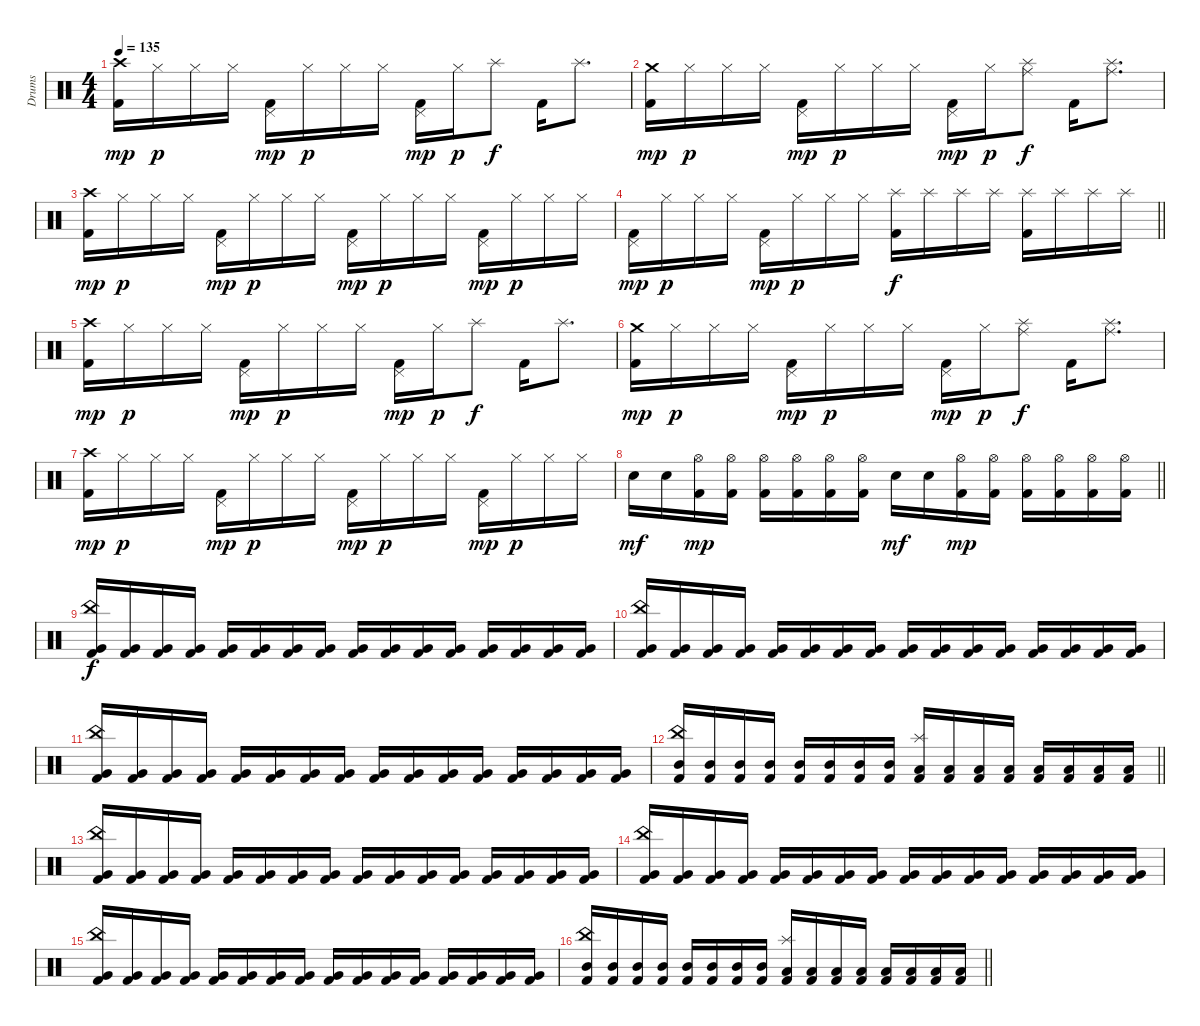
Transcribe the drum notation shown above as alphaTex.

\track ("Drums" "Drums") {instrument percussion}
\staff {score}
\articulation defaults
\ts (4 4)
\tempo 135
\clef neutral
\ks c
("Crash high (hit)" "Kick (hit) 2").16{dy mp} "Hi-Hat (closed)".16{dy p} "Hi-Hat (closed)".16 "Hi-Hat (closed)".16 ("Pedal Hi-Hat (hit)" "Kick (hit) 2").16{dy mp} "Hi-Hat (closed)".16{dy p} "Hi-Hat (closed)".16 "Hi-Hat (closed)".16 ("Pedal Hi-Hat (hit)" "Kick (hit) 2").16{dy mp} "Hi-Hat (closed)".16{dy p} "Splash (hit)".8{dy f} "Kick (hit) 2".16 "Splash (hit)".8{d} |
("Crash medium (hit)" "Kick (hit) 2").16{dy mp} "Hi-Hat (closed)".16{dy p} "Hi-Hat (closed)".16 "Hi-Hat (closed)".16 ("Pedal Hi-Hat (hit)" "Kick (hit) 2").16{dy mp} "Hi-Hat (closed)".16{dy p} "Hi-Hat (closed)".16 "Hi-Hat (closed)".16 ("Pedal Hi-Hat (hit)" "Kick (hit) 2").16{dy mp} "Hi-Hat (closed)".16{dy p} ("Splash (hit)" "Ride (middle)").8{dy f} "Kick (hit) 2".16 ("Splash (hit)" "Ride (middle)").8{d} |
("Crash high (hit)" "Kick (hit) 2").16{dy mp} "Hi-Hat (closed)".16{dy p} "Hi-Hat (closed)".16 "Hi-Hat (closed)".16 ("Pedal Hi-Hat (hit)" "Kick (hit) 2").16{dy mp} "Hi-Hat (closed)".16{dy p} "Hi-Hat (closed)".16 "Hi-Hat (closed)".16 ("Pedal Hi-Hat (hit)" "Kick (hit) 2").16{dy mp} "Hi-Hat (closed)".16{dy p} "Hi-Hat (closed)".16 "Hi-Hat (closed)".16 ("Pedal Hi-Hat (hit)" "Kick (hit) 2").16{dy mp} "Hi-Hat (closed)".16{dy p} "Hi-Hat (closed)".16 "Hi-Hat (closed)".16 |
\barLineRight lightlight
("Pedal Hi-Hat (hit)" "Kick (hit) 2").16{dy mp} "Hi-Hat (closed)".16{dy p} "Hi-Hat (closed)".16 "Hi-Hat (closed)".16 ("Pedal Hi-Hat (hit)" "Kick (hit) 2").16{dy mp} "Hi-Hat (closed)".16{dy p} "Hi-Hat (closed)".16 "Hi-Hat (closed)".16 ("Splash (hit)" "Kick (hit) 2").16{dy f} "Splash (hit)".16 "Splash (hit)".16 "Splash (hit)".16 ("Splash (hit)" "Kick (hit) 2").16 "Splash (hit)".16 "Splash (hit)".16 "Splash (hit)".16 |
("Crash high (hit)" "Kick (hit) 2").16{dy mp} "Hi-Hat (closed)".16{dy p} "Hi-Hat (closed)".16 "Hi-Hat (closed)".16 ("Pedal Hi-Hat (hit)" "Kick (hit) 2").16{dy mp} "Hi-Hat (closed)".16{dy p} "Hi-Hat (closed)".16 "Hi-Hat (closed)".16 ("Pedal Hi-Hat (hit)" "Kick (hit) 2").16{dy mp} "Hi-Hat (closed)".16{dy p} "Splash (hit)".8{dy f} "Kick (hit) 2".16 "Splash (hit)".8{d} |
("Crash medium (hit)" "Kick (hit) 2").16{dy mp} "Hi-Hat (closed)".16{dy p} "Hi-Hat (closed)".16 "Hi-Hat (closed)".16 ("Pedal Hi-Hat (hit)" "Kick (hit) 2").16{dy mp} "Hi-Hat (closed)".16{dy p} "Hi-Hat (closed)".16 "Hi-Hat (closed)".16 ("Pedal Hi-Hat (hit)" "Kick (hit) 2").16{dy mp} "Hi-Hat (closed)".16{dy p} ("Splash (hit)" "Ride (middle)").8{dy f} "Kick (hit) 2".16 ("Splash (hit)" "Ride (middle)").8{d} |
("Crash high (hit)" "Kick (hit) 2").16{dy mp} "Hi-Hat (closed)".16{dy p} "Hi-Hat (closed)".16 "Hi-Hat (closed)".16 ("Pedal Hi-Hat (hit)" "Kick (hit) 2").16{dy mp} "Hi-Hat (closed)".16{dy p} "Hi-Hat (closed)".16 "Hi-Hat (closed)".16 ("Pedal Hi-Hat (hit)" "Kick (hit) 2").16{dy mp} "Hi-Hat (closed)".16{dy p} "Hi-Hat (closed)".16 "Hi-Hat (closed)".16 ("Pedal Hi-Hat (hit)" "Kick (hit) 2").16{dy mp} "Hi-Hat (closed)".16{dy p} "Hi-Hat (closed)".16 "Hi-Hat (closed)".16 |
\barLineRight lightlight "Electric Snare (hit)".16{dy mf} "Electric Snare (hit)".16
("Hi-Hat (open)" "Kick (hit) 2").16{dy mp} ("Hi-Hat (open)" "Kick (hit) 2").16 ("Hi-Hat (open)" "Kick (hit) 2").16 ("Hi-Hat (open)" "Kick (hit) 2").16 ("Hi-Hat (open)" "Kick (hit) 2").16 ("Hi-Hat (open)" "Kick (hit) 2").16 "Electric Snare (hit)".16{dy mf} "Electric Snare (hit)".16 ("Hi-Hat (open)" "Kick (hit) 2").16{dy mp} ("Hi-Hat (open)" "Kick (hit) 2").16 ("Hi-Hat (open)" "Kick (hit) 2").16 ("Hi-Hat (open)" "Kick (hit) 2").16 ("Hi-Hat (open)" "Kick (hit) 2").16 ("Hi-Hat (open)" "Kick (hit) 2").16 |
("China (hit)" "Very Low Tom (hit)" "Kick (hit) 2").16{dy f} ("Very Low Tom (hit)" "Kick (hit) 2").16 ("Very Low Tom (hit)" "Kick (hit) 2").16 ("Very Low Tom (hit)" "Kick (hit) 2").16 ("Very Low Tom (hit)" "Kick (hit) 2").16 ("Very Low Tom (hit)" "Kick (hit) 2").16 ("Very Low Tom (hit)" "Kick (hit) 2").16 ("Very Low Tom (hit)" "Kick (hit) 2").16 ("Very Low Tom (hit)" "Kick (hit) 2").16 ("Very Low Tom (hit)" "Kick (hit) 2").16 ("Very Low Tom (hit)" "Kick (hit) 2").16 ("Very Low Tom (hit)" "Kick (hit) 2").16 ("Very Low Tom (hit)" "Kick (hit) 2").16 ("Very Low Tom (hit)" "Kick (hit) 2").16 ("Very Low Tom (hit)" "Kick (hit) 2").16 ("Very Low Tom (hit)" "Kick (hit) 2").16 |
("China (hit)" "Very Low Tom (hit)" "Kick (hit) 2").16 ("Very Low Tom (hit)" "Kick (hit) 2").16 ("Very Low Tom (hit)" "Kick (hit) 2").16 ("Very Low Tom (hit)" "Kick (hit) 2").16 ("Very Low Tom (hit)" "Kick (hit) 2").16 ("Very Low Tom (hit)" "Kick (hit) 2").16 ("Very Low Tom (hit)" "Kick (hit) 2").16 ("Very Low Tom (hit)" "Kick (hit) 2").16 ("Very Low Tom (hit)" "Kick (hit) 2").16 ("Very Low Tom (hit)" "Kick (hit) 2").16 ("Very Low Tom (hit)" "Kick (hit) 2").16 ("Very Low Tom (hit)" "Kick (hit) 2").16 ("Very Low Tom (hit)" "Kick (hit) 2").16 ("Very Low Tom (hit)" "Kick (hit) 2").16 ("Very Low Tom (hit)" "Kick (hit) 2").16 ("Very Low Tom (hit)" "Kick (hit) 2").16 |
("China (hit)" "Very Low Tom (hit)" "Kick (hit) 2").16 ("Very Low Tom (hit)" "Kick (hit) 2").16 ("Very Low Tom (hit)" "Kick (hit) 2").16 ("Very Low Tom (hit)" "Kick (hit) 2").16 ("Very Low Tom (hit)" "Kick (hit) 2").16 ("Very Low Tom (hit)" "Kick (hit) 2").16 ("Very Low Tom (hit)" "Kick (hit) 2").16 ("Very Low Tom (hit)" "Kick (hit) 2").16 ("Very Low Tom (hit)" "Kick (hit) 2").16 ("Very Low Tom (hit)" "Kick (hit) 2").16 ("Very Low Tom (hit)" "Kick (hit) 2").16 ("Very Low Tom (hit)" "Kick (hit) 2").16 ("Very Low Tom (hit)" "Kick (hit) 2").16 ("Very Low Tom (hit)" "Kick (hit) 2").16 ("Very Low Tom (hit)" "Kick (hit) 2").16 ("Very Low Tom (hit)" "Kick (hit) 2").16 |
\barLineRight lightlight
("China (hit)" "Mid Tom (hit)" "Kick (hit) 2").16 ("Mid Tom (hit)" "Kick (hit) 2").16 ("Mid Tom (hit)" "Kick (hit) 2").16 ("Mid Tom (hit)" "Kick (hit) 2").16 ("Mid Tom (hit)" "Kick (hit) 2").16 ("Mid Tom (hit)" "Kick (hit) 2").16 ("Mid Tom (hit)" "Kick (hit) 2").16 ("Mid Tom (hit)" "Kick (hit) 2").16 ("Splash (hit)" "Low Tom (hit)" "Kick (hit) 2").16 ("Low Tom (hit)" "Kick (hit) 2").16 ("Low Tom (hit)" "Kick (hit) 2").16 ("Low Tom (hit)" "Kick (hit) 2").16 ("Low Tom (hit)" "Kick (hit) 2").16 ("Low Tom (hit)" "Kick (hit) 2").16 ("Low Tom (hit)" "Kick (hit) 2").16 ("Low Tom (hit)" "Kick (hit) 2").16 |
("China (hit)" "Very Low Tom (hit)" "Kick (hit) 2").16 ("Very Low Tom (hit)" "Kick (hit) 2").16 ("Very Low Tom (hit)" "Kick (hit) 2").16 ("Very Low Tom (hit)" "Kick (hit) 2").16 ("Very Low Tom (hit)" "Kick (hit) 2").16 ("Very Low Tom (hit)" "Kick (hit) 2").16 ("Very Low Tom (hit)" "Kick (hit) 2").16 ("Very Low Tom (hit)" "Kick (hit) 2").16 ("Very Low Tom (hit)" "Kick (hit) 2").16 ("Very Low Tom (hit)" "Kick (hit) 2").16 ("Very Low Tom (hit)" "Kick (hit) 2").16 ("Very Low Tom (hit)" "Kick (hit) 2").16 ("Very Low Tom (hit)" "Kick (hit) 2").16 ("Very Low Tom (hit)" "Kick (hit) 2").16 ("Very Low Tom (hit)" "Kick (hit) 2").16 ("Very Low Tom (hit)" "Kick (hit) 2").16 |
("China (hit)" "Very Low Tom (hit)" "Kick (hit) 2").16 ("Very Low Tom (hit)" "Kick (hit) 2").16 ("Very Low Tom (hit)" "Kick (hit) 2").16 ("Very Low Tom (hit)" "Kick (hit) 2").16 ("Very Low Tom (hit)" "Kick (hit) 2").16 ("Very Low Tom (hit)" "Kick (hit) 2").16 ("Very Low Tom (hit)" "Kick (hit) 2").16 ("Very Low Tom (hit)" "Kick (hit) 2").16 ("Very Low Tom (hit)" "Kick (hit) 2").16 ("Very Low Tom (hit)" "Kick (hit) 2").16 ("Very Low Tom (hit)" "Kick (hit) 2").16 ("Very Low Tom (hit)" "Kick (hit) 2").16 ("Very Low Tom (hit)" "Kick (hit) 2").16 ("Very Low Tom (hit)" "Kick (hit) 2").16 ("Very Low Tom (hit)" "Kick (hit) 2").16 ("Very Low Tom (hit)" "Kick (hit) 2").16 |
("China (hit)" "Very Low Tom (hit)" "Kick (hit) 2").16 ("Very Low Tom (hit)" "Kick (hit) 2").16 ("Very Low Tom (hit)" "Kick (hit) 2").16 ("Very Low Tom (hit)" "Kick (hit) 2").16 ("Very Low Tom (hit)" "Kick (hit) 2").16 ("Very Low Tom (hit)" "Kick (hit) 2").16 ("Very Low Tom (hit)" "Kick (hit) 2").16 ("Very Low Tom (hit)" "Kick (hit) 2").16 ("Very Low Tom (hit)" "Kick (hit) 2").16 ("Very Low Tom (hit)" "Kick (hit) 2").16 ("Very Low Tom (hit)" "Kick (hit) 2").16 ("Very Low Tom (hit)" "Kick (hit) 2").16 ("Very Low Tom (hit)" "Kick (hit) 2").16 ("Very Low Tom (hit)" "Kick (hit) 2").16 ("Very Low Tom (hit)" "Kick (hit) 2").16 ("Very Low Tom (hit)" "Kick (hit) 2").16 |
\barLineRight lightlight
("China (hit)" "Mid Tom (hit)" "Kick (hit) 2").16 ("Mid Tom (hit)" "Kick (hit) 2").16 ("Mid Tom (hit)" "Kick (hit) 2").16 ("Mid Tom (hit)" "Kick (hit) 2").16 ("Mid Tom (hit)" "Kick (hit) 2").16 ("Mid Tom (hit)" "Kick (hit) 2").16 ("Mid Tom (hit)" "Kick (hit) 2").16 ("Mid Tom (hit)" "Kick (hit) 2").16 ("Splash (hit)" "Low Tom (hit)" "Kick (hit) 2").16 ("Low Tom (hit)" "Kick (hit) 2").16 ("Low Tom (hit)" "Kick (hit) 2").16 ("Low Tom (hit)" "Kick (hit) 2").16 ("Low Tom (hit)" "Kick (hit) 2").16 ("Low Tom (hit)" "Kick (hit) 2").16 ("Low Tom (hit)" "Kick (hit) 2").16 ("Low Tom (hit)" "Kick (hit) 2").16
